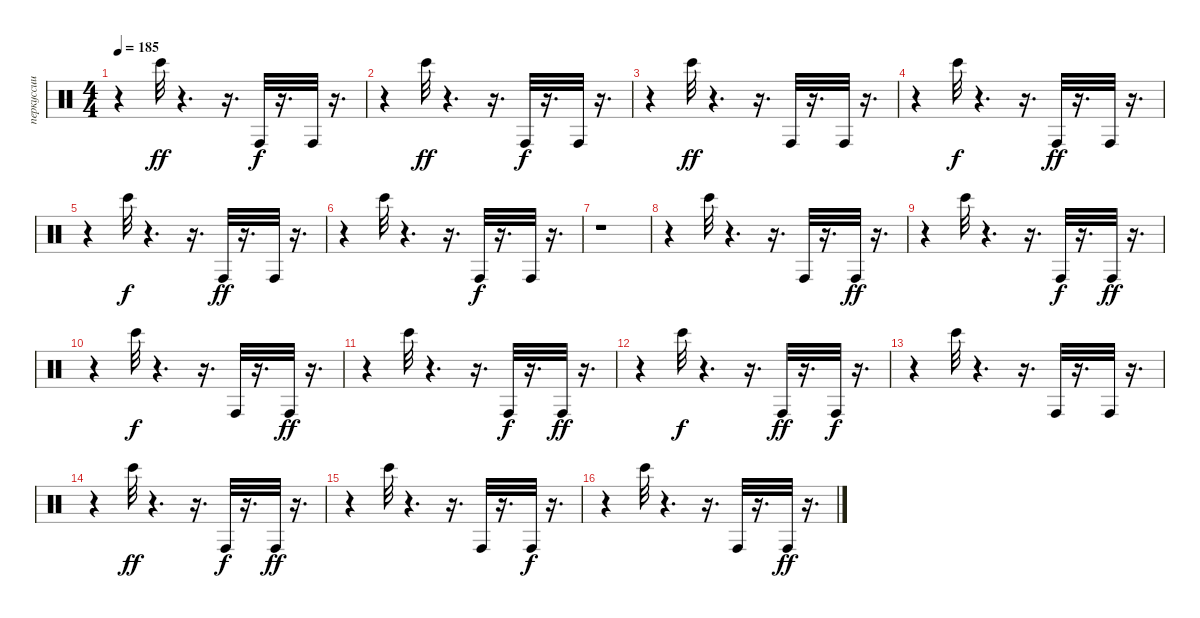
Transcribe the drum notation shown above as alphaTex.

\track ("перкуссии" "перкуссии") {instrument percussion}
\staff {score}
\articulation defaults
\ts (4 4)
\tempo 185
\clef neutral
\ks c
r.4{dy f} "Bongo High (hit)".32{dy ff} r.4{d} r.16{d} "Conga high (hit)".32{dy f} r.16{d} "Conga high (hit)".32 r.16{d} |
r.4 "Bongo High (hit)".32{dy ff} r.4{d} r.16{d} "Conga high (hit)".32{dy f} r.16{d} "Conga high (hit)".32 r.16{d} |
r.4 "Bongo High (hit)".32{dy ff} r.4{d} r.16{d} "Conga high (hit)".32 r.16{d} "Conga high (hit)".32 r.16{d} |
r.4 "Bongo High (hit)".32{dy f} r.4{d} r.16{d} "Conga high (hit)".32{dy ff} r.16{d} "Conga high (hit)".32 r.16{d} |
r.4 "Bongo High (hit)".32{dy f} r.4{d} r.16{d} "Conga high (hit)".32{dy ff} r.16{d} "Conga high (hit)".32 r.16{d} |
r.4 "Bongo High (hit)".32 r.4{d} r.16{d} "Conga high (hit)".32{dy f} r.16{d} "Conga high (hit)".32 r.16{d} |
r.1 |
r.4 "Bongo High (hit)".32 r.4{d} r.16{d} "Conga high (hit)".32 r.16{d} "Conga high (hit)".32{dy ff} r.16{d} |
r.4 "Bongo High (hit)".32 r.4{d} r.16{d} "Conga high (hit)".32{dy f} r.16{d} "Conga high (hit)".32{dy ff} r.16{d} |
r.4 "Bongo High (hit)".32{dy f} r.4{d} r.16{d} "Conga high (hit)".32 r.16{d} "Conga high (hit)".32{dy ff} r.16{d} |
r.4 "Bongo High (hit)".32 r.4{d} r.16{d} "Conga high (hit)".32{dy f} r.16{d} "Conga high (hit)".32{dy ff} r.16{d} |
r.4 "Bongo High (hit)".32{dy f} r.4{d} r.16{d} "Conga high (hit)".32{dy ff} r.16{d} "Conga high (hit)".32{dy f} r.16{d} |
r.4 "Bongo High (hit)".32 r.4{d} r.16{d} "Conga high (hit)".32 r.16{d} "Conga high (hit)".32 r.16{d} |
r.4 "Bongo High (hit)".32{dy ff} r.4{d} r.16{d} "Conga high (hit)".32{dy f} r.16{d} "Conga high (hit)".32{dy ff} r.16{d} |
r.4 "Bongo High (hit)".32 r.4{d} r.16{d} "Conga high (hit)".32 r.16{d} "Conga high (hit)".32{dy f} r.16{d} |
r.4 "Bongo High (hit)".32 r.4{d} r.16{d} "Conga high (hit)".32 r.16{d} "Conga high (hit)".32{dy ff} r.16{d}
